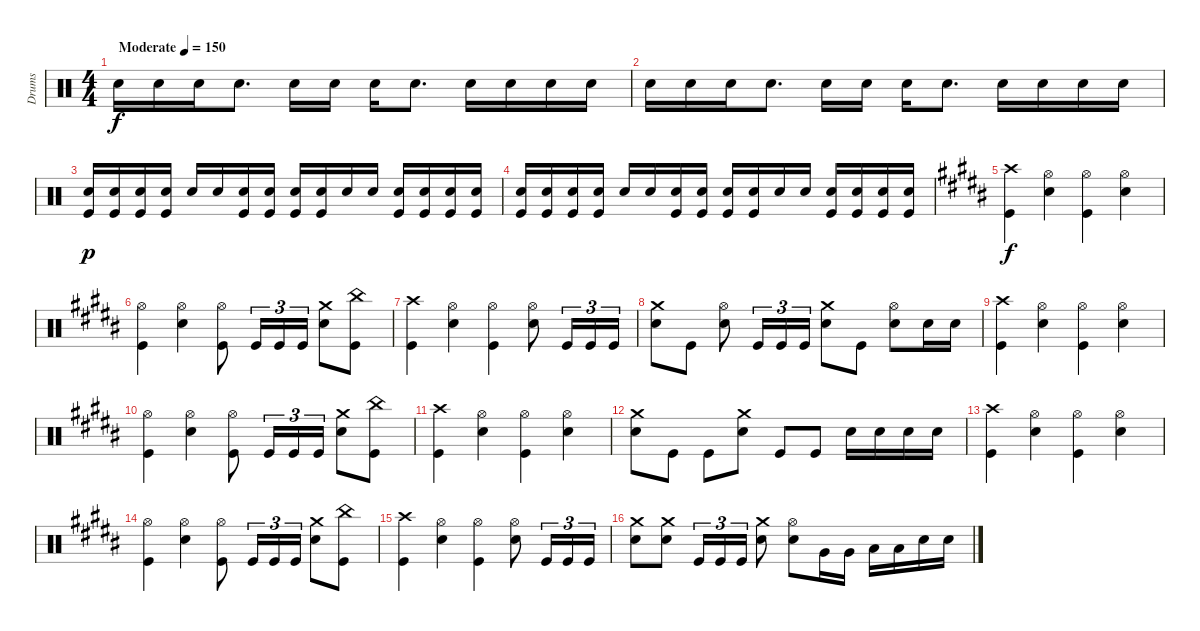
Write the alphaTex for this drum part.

\track ("Drums" "Drums") {instrument percussion}
\staff {score}
\articulation defaults
\ts (4 4)
\tempo (150 "Moderate")
\clef neutral
\ks c "Snare (hit) 2".16{dy f} "Snare (hit) 2".16 "Snare (hit) 2".16 "Snare (hit) 2".8{d} "Snare (hit) 2".16 "Snare (hit) 2".16 "Snare (hit) 2".16 "Snare (hit) 2".8{d} "Snare (hit) 2".16 "Snare (hit) 2".16 "Snare (hit) 2".16 "Snare (hit) 2".16
|
"Snare (hit) 2".16 "Snare (hit) 2".16 "Snare (hit) 2".16 "Snare (hit) 2".8{d} "Snare (hit) 2".16 "Snare (hit) 2".16 "Snare (hit) 2".16 "Snare (hit) 2".8{d} "Snare (hit) 2".16 "Snare (hit) 2".16 "Snare (hit) 2".16 "Snare (hit) 2".16 |
("Kick (hit)" "Snare (hit) 2").16{dy p} ("Kick (hit)" "Snare (hit) 2").16 ("Kick (hit)" "Snare (hit) 2").16 ("Kick (hit)" "Snare (hit) 2").16 "Snare (hit) 2".16 "Snare (hit) 2".16 ("Kick (hit)" "Snare (hit) 2").16 ("Kick (hit)" "Snare (hit) 2").16 ("Kick (hit)" "Snare (hit) 2").16 ("Kick (hit)" "Snare (hit) 2").16 "Snare (hit) 2".16 "Snare (hit) 2".16 ("Kick (hit)" "Snare (hit) 2").16 ("Kick (hit)" "Snare (hit) 2").16 ("Kick (hit)" "Snare (hit) 2").16 ("Kick (hit)" "Snare (hit) 2").16 |
("Kick (hit)" "Snare (hit) 2").16 ("Kick (hit)" "Snare (hit) 2").16 ("Kick (hit)" "Snare (hit) 2").16 ("Kick (hit)" "Snare (hit) 2").16 "Snare (hit) 2".16 "Snare (hit) 2".16 ("Kick (hit)" "Snare (hit) 2").16 ("Kick (hit)" "Snare (hit) 2").16 ("Kick (hit)" "Snare (hit) 2").16 ("Kick (hit)" "Snare (hit) 2").16 "Snare (hit) 2".16 "Snare (hit) 2".16 ("Kick (hit)" "Snare (hit) 2").16 ("Kick (hit)" "Snare (hit) 2").16 ("Kick (hit)" "Snare (hit) 2").16 ("Kick (hit)" "Snare (hit) 2").16 |
\ks b
("Crash high (hit)" "Kick (hit)").4{dy f} ("Snare (hit) 2" "Hi-Hat (open)").4 ("Kick (hit)" "Hi-Hat (open)").4 ("Snare (hit) 2" "Hi-Hat (open)").4 |
\ks g#minor
("Kick (hit)" "Hi-Hat (open)").4 ("Snare (hit) 2" "Hi-Hat (open)").4 ("Kick (hit)" "Hi-Hat (open)").8 "Kick (hit)".16{tu (3 2)} "Kick (hit)".16{tu (3 2)} "Kick (hit)".16{tu (3 2)} ("Snare (hit) 2" "Crash medium (hit)").8 ("China (hit)" "Kick (hit)").8 |
("Crash high (hit)" "Kick (hit)").4 ("Snare (hit) 2" "Hi-Hat (open)").4 ("Kick (hit)" "Hi-Hat (open)").4 ("Snare (hit) 2" "Hi-Hat (open)").8 "Kick (hit)".16{tu (3 2)} "Kick (hit)".16{tu (3 2)} "Kick (hit)".16{tu (3 2)} |
("Snare (hit) 2" "Crash medium (hit)").8 "Kick (hit)".8 ("Snare (hit) 2" "Hi-Hat (open)").8 "Kick (hit)".16{tu (3 2)} "Kick (hit)".16{tu (3 2)} "Kick (hit)".16{tu (3 2)} ("Snare (hit) 2" "Crash medium (hit)").8 "Kick (hit)".8 ("Snare (hit) 2" "Hi-Hat (open)").8 "Snare (hit) 2".16 "Snare (hit) 2".16 |
\ks b
("Crash high (hit)" "Kick (hit)").4 ("Snare (hit) 2" "Hi-Hat (open)").4 ("Kick (hit)" "Hi-Hat (open)").4 ("Snare (hit) 2" "Hi-Hat (open)").4 |
\ks g#minor
("Kick (hit)" "Hi-Hat (open)").4 ("Snare (hit) 2" "Hi-Hat (open)").4 ("Kick (hit)" "Hi-Hat (open)").8 "Kick (hit)".16{tu (3 2)} "Kick (hit)".16{tu (3 2)} "Kick (hit)".16{tu (3 2)} ("Snare (hit) 2" "Crash medium (hit)").8 ("China (hit)" "Kick (hit)").8 |
("Crash high (hit)" "Kick (hit)").4 ("Snare (hit) 2" "Hi-Hat (open)").4 ("Kick (hit)" "Hi-Hat (open)").4 ("Snare (hit) 2" "Hi-Hat (open)").4 |
("Crash medium (hit)" "Snare (hit) 2").8 "Kick (hit)".8 "Kick (hit)".8 ("Crash medium (hit)" "Snare (hit) 2").8 "Kick (hit)".8 "Kick (hit)".8 "Snare (hit) 2".16 "Snare (hit) 2".16 "Snare (hit) 2".16 "Snare (hit) 2".16 |
\ks b
("Crash high (hit)" "Kick (hit)").4 ("Snare (hit) 2" "Hi-Hat (open)").4 ("Kick (hit)" "Hi-Hat (open)").4 ("Snare (hit) 2" "Hi-Hat (open)").4 |
\ks g#minor
("Kick (hit)" "Hi-Hat (open)").4 ("Snare (hit) 2" "Hi-Hat (open)").4 ("Kick (hit)" "Hi-Hat (open)").8 "Kick (hit)".16{tu (3 2)} "Kick (hit)".16{tu (3 2)} "Kick (hit)".16{tu (3 2)} ("Snare (hit) 2" "Crash medium (hit)").8 ("China (hit)" "Kick (hit)").8 |
("Crash high (hit)" "Kick (hit)").4 ("Snare (hit) 2" "Hi-Hat (open)").4 ("Kick (hit)" "Hi-Hat (open)").4 ("Snare (hit) 2" "Hi-Hat (open)").8 "Kick (hit)".16{tu (3 2)} "Kick (hit)".16{tu (3 2)} "Kick (hit)".16{tu (3 2)} |
("Snare (hit) 2" "Crash medium (hit)").8 ("Snare (hit) 2" "Crash medium (hit)").8 "Kick (hit)".16{tu (3 2)} "Kick (hit)".16{tu (3 2)} "Kick (hit)".16{tu (3 2)} ("Snare (hit) 2" "Crash medium (hit)").8 ("Snare (hit) 2" "Hi-Hat (open)").8 "Very Low Tom (hit)".16 "Very Low Tom (hit)".16 "Low Floor Tom (hit)".16 "Low Floor Tom (hit)".16 "Snare (hit) 2".16 "Snare (hit) 2".16
